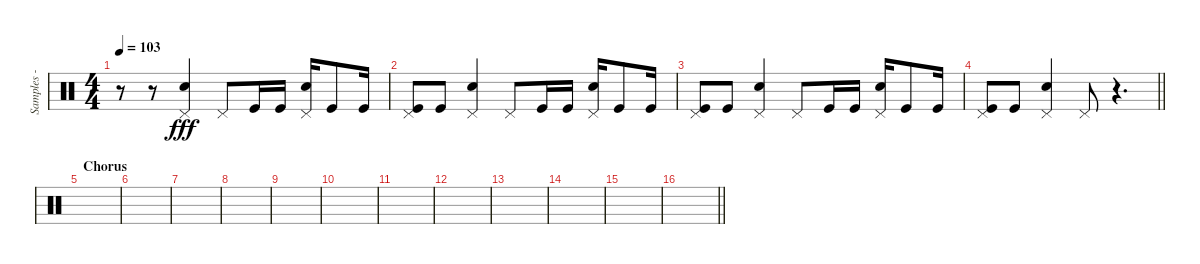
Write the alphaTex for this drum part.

\track ("Samples - Joe Hahn" "Samples - ") {instrument percussion}
\staff {score}
\articulation defaults
\ts (4 4)
\tempo 103
\clef neutral
\ks c
r.8{dy fff} r.8 ("Pedal Hi-Hat (hit)" "Snare (hit) 2").4 "Pedal Hi-Hat (hit)".8 "Kick (hit)".16 "Kick (hit)".16 ("Pedal Hi-Hat (hit)" "Snare (hit) 2").16 "Kick (hit)".8 "Kick (hit)".16 |
("Pedal Hi-Hat (hit)" "Kick (hit)").8 "Kick (hit)".8 ("Pedal Hi-Hat (hit)" "Snare (hit) 2").4 "Pedal Hi-Hat (hit)".8 "Kick (hit)".16 "Kick (hit)".16 ("Pedal Hi-Hat (hit)" "Snare (hit) 2").16 "Kick (hit)".8 "Kick (hit)".16 |
("Pedal Hi-Hat (hit)" "Kick (hit)").8 "Kick (hit)".8 ("Pedal Hi-Hat (hit)" "Snare (hit) 2").4 "Pedal Hi-Hat (hit)".8 "Kick (hit)".16 "Kick (hit)".16 ("Pedal Hi-Hat (hit)" "Snare (hit) 2").16 "Kick (hit)".8 "Kick (hit)".16 |
\barLineRight lightlight
("Pedal Hi-Hat (hit)" "Kick (hit)").8 "Kick (hit)".8 ("Pedal Hi-Hat (hit)" "Snare (hit) 2").4 "Pedal Hi-Hat (hit)".8 r.4{d} |
\section ("" "Chorus")
|
|
|
|
|
|
|
|
|
|
|
\barLineRight lightlight
